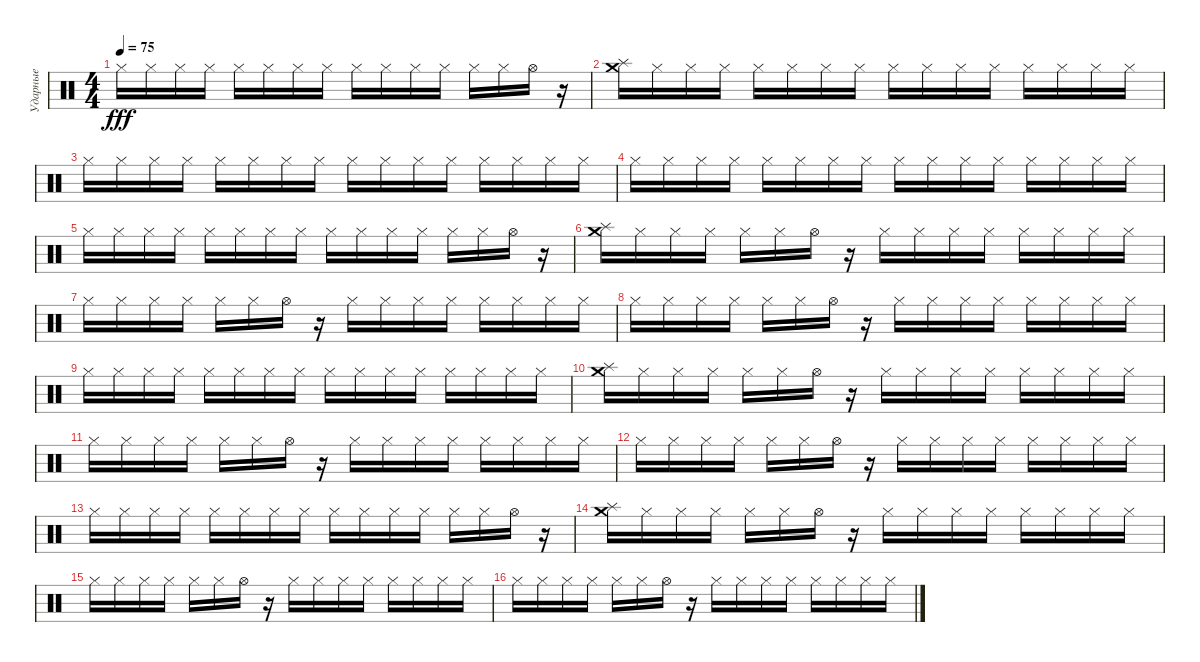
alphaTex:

\track ("Ударные" "Ударные") {instrument percussion}
\staff {score}
\articulation defaults
\ts (4 4)
\tempo 75
\clef neutral
\ks c "Hi-Hat (closed)".16{dy fff} "Hi-Hat (closed)".16 "Hi-Hat (closed)".16 "Hi-Hat (closed)".16 "Hi-Hat (closed)".16 "Hi-Hat (closed)".16 "Hi-Hat (closed)".16 "Hi-Hat (closed)".16 "Hi-Hat (closed)".16 "Hi-Hat (closed)".16 "Hi-Hat (closed)".16 "Hi-Hat (closed)".16 "Hi-Hat (closed)".16 "Hi-Hat (closed)".16 "Hi-Hat (open)".16
r.16 |
("Splash (hit)" "Crash medium (hit)").16 "Hi-Hat (closed)".16 "Hi-Hat (closed)".16 "Hi-Hat (closed)".16 "Hi-Hat (closed)".16 "Hi-Hat (closed)".16 "Hi-Hat (closed)".16 "Hi-Hat (closed)".16 "Hi-Hat (closed)".16 "Hi-Hat (closed)".16 "Hi-Hat (closed)".16 "Hi-Hat (closed)".16 "Hi-Hat (closed)".16 "Hi-Hat (closed)".16 "Hi-Hat (closed)".16 "Hi-Hat (closed)".16 |
"Hi-Hat (closed)".16 "Hi-Hat (closed)".16 "Hi-Hat (closed)".16 "Hi-Hat (closed)".16 "Hi-Hat (closed)".16 "Hi-Hat (closed)".16 "Hi-Hat (closed)".16 "Hi-Hat (closed)".16 "Hi-Hat (closed)".16 "Hi-Hat (closed)".16 "Hi-Hat (closed)".16 "Hi-Hat (closed)".16 "Hi-Hat (closed)".16 "Hi-Hat (closed)".16 "Hi-Hat (closed)".16 "Hi-Hat (closed)".16 |
"Hi-Hat (closed)".16 "Hi-Hat (closed)".16 "Hi-Hat (closed)".16 "Hi-Hat (closed)".16 "Hi-Hat (closed)".16 "Hi-Hat (closed)".16 "Hi-Hat (closed)".16 "Hi-Hat (closed)".16 "Hi-Hat (closed)".16 "Hi-Hat (closed)".16 "Hi-Hat (closed)".16 "Hi-Hat (closed)".16 "Hi-Hat (closed)".16 "Hi-Hat (closed)".16 "Hi-Hat (closed)".16 "Hi-Hat (closed)".16 |
"Hi-Hat (closed)".16 "Hi-Hat (closed)".16 "Hi-Hat (closed)".16 "Hi-Hat (closed)".16 "Hi-Hat (closed)".16 "Hi-Hat (closed)".16 "Hi-Hat (closed)".16 "Hi-Hat (closed)".16 "Hi-Hat (closed)".16 "Hi-Hat (closed)".16 "Hi-Hat (closed)".16 "Hi-Hat (closed)".16 "Hi-Hat (closed)".16 "Hi-Hat (closed)".16 "Hi-Hat (open)".16 r.16 |
("Splash (hit)" "Crash medium (hit)").16 "Hi-Hat (closed)".16 "Hi-Hat (closed)".16 "Hi-Hat (closed)".16 "Hi-Hat (closed)".16 "Hi-Hat (closed)".16 "Hi-Hat (open)".16 r.16 "Hi-Hat (closed)".16 "Hi-Hat (closed)".16 "Hi-Hat (closed)".16 "Hi-Hat (closed)".16 "Hi-Hat (closed)".16 "Hi-Hat (closed)".16 "Hi-Hat (closed)".16 "Hi-Hat (closed)".16 |
"Hi-Hat (closed)".16 "Hi-Hat (closed)".16 "Hi-Hat (closed)".16 "Hi-Hat (closed)".16 "Hi-Hat (closed)".16 "Hi-Hat (closed)".16 "Hi-Hat (open)".16 r.16 "Hi-Hat (closed)".16 "Hi-Hat (closed)".16 "Hi-Hat (closed)".16 "Hi-Hat (closed)".16 "Hi-Hat (closed)".16 "Hi-Hat (closed)".16 "Hi-Hat (closed)".16 "Hi-Hat (closed)".16 |
"Hi-Hat (closed)".16 "Hi-Hat (closed)".16 "Hi-Hat (closed)".16 "Hi-Hat (closed)".16 "Hi-Hat (closed)".16 "Hi-Hat (closed)".16 "Hi-Hat (open)".16 r.16 "Hi-Hat (closed)".16 "Hi-Hat (closed)".16 "Hi-Hat (closed)".16 "Hi-Hat (closed)".16 "Hi-Hat (closed)".16 "Hi-Hat (closed)".16 "Hi-Hat (closed)".16 "Hi-Hat (closed)".16 |
"Hi-Hat (closed)".16 "Hi-Hat (closed)".16 "Hi-Hat (closed)".16 "Hi-Hat (closed)".16 "Hi-Hat (closed)".16 "Hi-Hat (closed)".16 "Hi-Hat (closed)".16 "Hi-Hat (closed)".16 "Hi-Hat (closed)".16 "Hi-Hat (closed)".16 "Hi-Hat (closed)".16 "Hi-Hat (closed)".16 "Hi-Hat (closed)".16 "Hi-Hat (closed)".16 "Hi-Hat (closed)".16 "Hi-Hat (closed)".16 |
("Splash (hit)" "Crash medium (hit)").16 "Hi-Hat (closed)".16 "Hi-Hat (closed)".16 "Hi-Hat (closed)".16 "Hi-Hat (closed)".16 "Hi-Hat (closed)".16 "Hi-Hat (open)".16 r.16 "Hi-Hat (closed)".16 "Hi-Hat (closed)".16 "Hi-Hat (closed)".16 "Hi-Hat (closed)".16 "Hi-Hat (closed)".16 "Hi-Hat (closed)".16 "Hi-Hat (closed)".16 "Hi-Hat (closed)".16 |
"Hi-Hat (closed)".16 "Hi-Hat (closed)".16 "Hi-Hat (closed)".16 "Hi-Hat (closed)".16 "Hi-Hat (closed)".16 "Hi-Hat (closed)".16 "Hi-Hat (open)".16 r.16 "Hi-Hat (closed)".16 "Hi-Hat (closed)".16 "Hi-Hat (closed)".16 "Hi-Hat (closed)".16 "Hi-Hat (closed)".16 "Hi-Hat (closed)".16 "Hi-Hat (closed)".16 "Hi-Hat (closed)".16 |
"Hi-Hat (closed)".16 "Hi-Hat (closed)".16 "Hi-Hat (closed)".16 "Hi-Hat (closed)".16 "Hi-Hat (closed)".16 "Hi-Hat (closed)".16 "Hi-Hat (open)".16 r.16 "Hi-Hat (closed)".16 "Hi-Hat (closed)".16 "Hi-Hat (closed)".16 "Hi-Hat (closed)".16 "Hi-Hat (closed)".16 "Hi-Hat (closed)".16 "Hi-Hat (closed)".16 "Hi-Hat (closed)".16 |
"Hi-Hat (closed)".16 "Hi-Hat (closed)".16 "Hi-Hat (closed)".16 "Hi-Hat (closed)".16 "Hi-Hat (closed)".16 "Hi-Hat (closed)".16 "Hi-Hat (closed)".16 "Hi-Hat (closed)".16 "Hi-Hat (closed)".16 "Hi-Hat (closed)".16 "Hi-Hat (closed)".16 "Hi-Hat (closed)".16 "Hi-Hat (closed)".16 "Hi-Hat (closed)".16 "Hi-Hat (open)".16 r.16 |
("Splash (hit)" "Crash medium (hit)").16 "Hi-Hat (closed)".16 "Hi-Hat (closed)".16 "Hi-Hat (closed)".16 "Hi-Hat (closed)".16 "Hi-Hat (closed)".16 "Hi-Hat (open)".16 r.16 "Hi-Hat (closed)".16 "Hi-Hat (closed)".16 "Hi-Hat (closed)".16 "Hi-Hat (closed)".16 "Hi-Hat (closed)".16 "Hi-Hat (closed)".16 "Hi-Hat (closed)".16 "Hi-Hat (closed)".16 |
"Hi-Hat (closed)".16 "Hi-Hat (closed)".16 "Hi-Hat (closed)".16 "Hi-Hat (closed)".16 "Hi-Hat (closed)".16 "Hi-Hat (closed)".16 "Hi-Hat (open)".16 r.16 "Hi-Hat (closed)".16 "Hi-Hat (closed)".16 "Hi-Hat (closed)".16 "Hi-Hat (closed)".16 "Hi-Hat (closed)".16 "Hi-Hat (closed)".16 "Hi-Hat (closed)".16 "Hi-Hat (closed)".16 |
"Hi-Hat (closed)".16 "Hi-Hat (closed)".16 "Hi-Hat (closed)".16 "Hi-Hat (closed)".16 "Hi-Hat (closed)".16 "Hi-Hat (closed)".16 "Hi-Hat (open)".16 r.16 "Hi-Hat (closed)".16 "Hi-Hat (closed)".16 "Hi-Hat (closed)".16 "Hi-Hat (closed)".16 "Hi-Hat (closed)".16 "Hi-Hat (closed)".16 "Hi-Hat (closed)".16 "Hi-Hat (closed)".16
